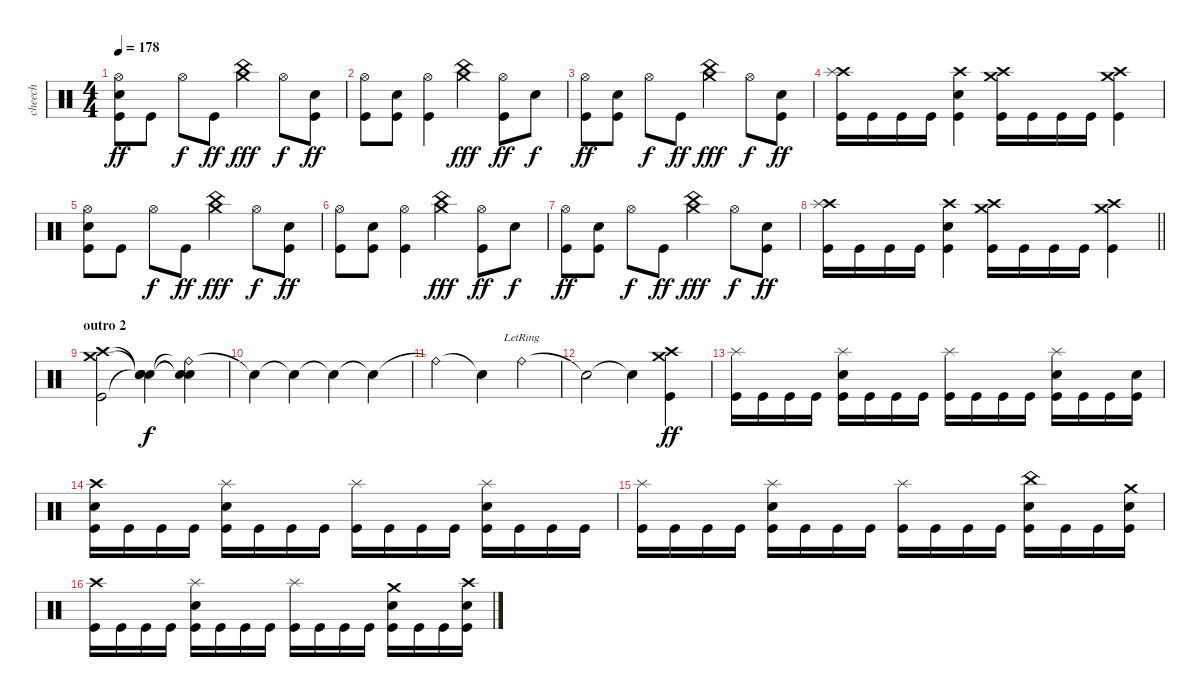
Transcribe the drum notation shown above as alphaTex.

\track ("cheech" "cheech") {solo instrument percussion}
\staff {score}
\articulation defaults
\ts (4 4)
\tempo 178
\clef neutral
\ks c
("Hi-Hat (open)" "Electric Snare (hit)" "Kick (hit)").8{dy ff} "Kick (hit)".8 "Hi-Hat (open)".8{dy f} "Kick (hit)".8{dy ff} ("China (hit)" "Crash medium (hit)").4{dy fff} "Hi-Hat (open)".8{dy f} ("Electric Snare (hit)" "Kick (hit)").8{dy ff} |
("Hi-Hat (open)" "Kick (hit)").8 ("Electric Snare (hit)" "Kick (hit)").8 ("Hi-Hat (open)" "Kick (hit)").4 ("China (hit)" "Crash medium (hit)").4{dy fff} ("Hi-Hat (open)" "Kick (hit)").8{dy ff} "Electric Snare (hit)".8{dy f} |
("Hi-Hat (open)" "Kick (hit)").8{dy ff} ("Electric Snare (hit)" "Kick (hit)").8 "Hi-Hat (open)".8{dy f} "Kick (hit)".8{dy ff} ("China (hit)" "Crash medium (hit)").4{dy fff} "Hi-Hat (open)".8{dy f} ("Electric Snare (hit)" "Kick (hit)").8{dy ff} |
("Crash high (hit)" "Splash (hit)" "Kick (hit)").16 "Kick (hit)".16 "Kick (hit)".16 "Kick (hit)".16 ("Crash high (hit)" "Electric Snare (hit)" "Kick (hit)").4 ("Crash medium (hit)" "Crash high (hit)" "Kick (hit)").16 "Kick (hit)".16 "Kick (hit)".16 "Kick (hit)".16 ("Crash medium (hit)" "Crash high (hit)" "Kick (hit)").4 |
("Hi-Hat (open)" "Electric Snare (hit)" "Kick (hit)").8 "Kick (hit)".8 "Hi-Hat (open)".8{dy f} "Kick (hit)".8{dy ff} ("China (hit)" "Crash medium (hit)").4{dy fff} "Hi-Hat (open)".8{dy f} ("Electric Snare (hit)" "Kick (hit)").8{dy ff} |
("Hi-Hat (open)" "Kick (hit)").8 ("Electric Snare (hit)" "Kick (hit)").8 ("Hi-Hat (open)" "Kick (hit)").4 ("China (hit)" "Crash medium (hit)").4{dy fff} ("Hi-Hat (open)" "Kick (hit)").8{dy ff} "Electric Snare (hit)".8{dy f} |
("Hi-Hat (open)" "Kick (hit)").8{dy ff} ("Electric Snare (hit)" "Kick (hit)").8 "Hi-Hat (open)".8{dy f} "Kick (hit)".8{dy ff} ("China (hit)" "Crash medium (hit)").4{dy fff} "Hi-Hat (open)".8{dy f} ("Electric Snare (hit)" "Kick (hit)").8{dy ff} |
\barLineRight lightlight
("Crash high (hit)" "Splash (hit)" "Kick (hit)").16 "Kick (hit)".16 "Kick (hit)".16 "Kick (hit)".16 ("Crash high (hit)" "Electric Snare (hit)" "Kick (hit)").4 ("Crash medium (hit)" "Crash high (hit)" "Kick (hit)").16 "Kick (hit)".16 "Kick (hit)".16 "Kick (hit)".16 ("Crash medium (hit)" "Crash high (hit)" "Kick (hit)").4 |
\section ("" "outro 2")
("Crash high (hit)" "Crash medium (hit)" "Kick (hit)").2 ("Snare (hit)"{t} "Snare (hit)"{t} "Snare (hit)"{t}).4{dy f} ("Ride (bell)"{t} "Snare (hit)"{t} "Snare (hit)"{t}).4 |
"Snare (hit)"{t}.4 "Snare (hit)"{t}.4 "Snare (hit)"{t}.4 "Snare (hit)"{t}.4 |
"Ride (bell)"{t}.2 "Snare (hit)"{t}.4 "Ride (bell)"{lr}.4 |
"Snare (hit)"{t}.2 "Snare (hit)"{t}.4 ("Crash medium (hit)" "Crash high (hit)" "Kick (hit)").4{dy ff} |
("Splash (hit)" "Kick (hit)").16 "Kick (hit)".16 "Kick (hit)".16 "Kick (hit)".16 ("Splash (hit)" "Electric Snare (hit)" "Kick (hit)").16 "Kick (hit)".16 "Kick (hit)".16 "Kick (hit)".16 ("Splash (hit)" "Kick (hit)").16 "Kick (hit)".16 "Kick (hit)".16 "Kick (hit)".16 ("Splash (hit)" "Electric Snare (hit)" "Kick (hit)").16 "Kick (hit)".16 "Kick (hit)".16 ("Electric Snare (hit)" "Kick (hit)").16 |
("Crash high (hit)" "Electric Snare (hit)" "Kick (hit)").16 "Kick (hit)".16 "Kick (hit)".16 "Kick (hit)".16 ("Splash (hit)" "Electric Snare (hit)" "Kick (hit)").16 "Kick (hit)".16 "Kick (hit)".16 "Kick (hit)".16 ("Splash (hit)" "Kick (hit)").16 "Kick (hit)".16 "Kick (hit)".16 "Kick (hit)".16 ("Splash (hit)" "Electric Snare (hit)" "Kick (hit)").16 "Kick (hit)".16 "Kick (hit)".16 "Kick (hit)".16 |
("Splash (hit)" "Kick (hit)").16 "Kick (hit)".16 "Kick (hit)".16 "Kick (hit)".16 ("Splash (hit)" "Electric Snare (hit)" "Kick (hit)").16 "Kick (hit)".16 "Kick (hit)".16 "Kick (hit)".16 ("Splash (hit)" "Kick (hit)").16 "Kick (hit)".16 "Kick (hit)".16 "Kick (hit)".16 ("China (hit)" "Electric Snare (hit)" "Kick (hit)").16 "Kick (hit)".16 "Kick (hit)".16 ("Crash medium (hit)" "Electric Snare (hit)" "Kick (hit)").16 |
("Crash high (hit)" "Kick (hit)").16 "Kick (hit)".16 "Kick (hit)".16 "Kick (hit)".16 ("Splash (hit)" "Electric Snare (hit)" "Kick (hit)").16 "Kick (hit)".16 "Kick (hit)".16 "Kick (hit)".16 ("Splash (hit)" "Kick (hit)").16 "Kick (hit)".16 "Kick (hit)".16 "Kick (hit)".16 ("Crash medium (hit)" "Electric Snare (hit)" "Kick (hit)").16 "Kick (hit)".16 "Kick (hit)".16 ("Crash high (hit)" "Electric Snare (hit)" "Kick (hit)").16
